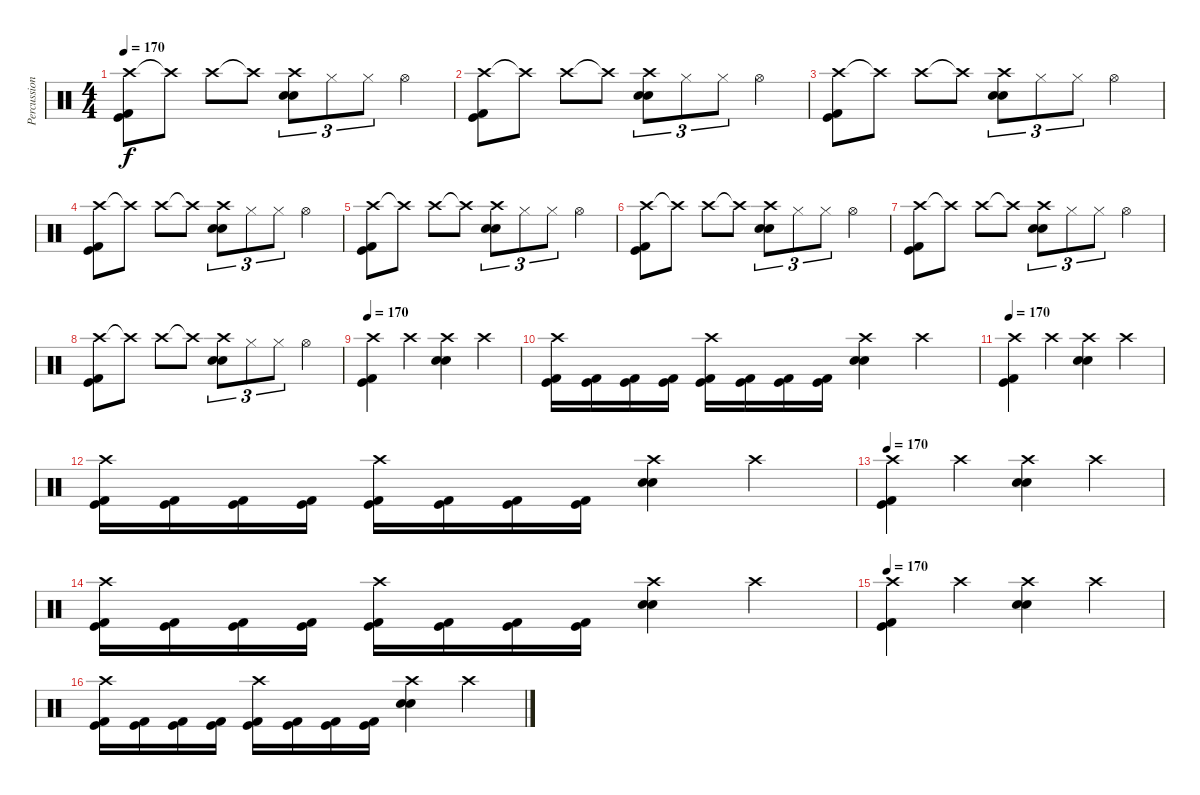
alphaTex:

\track ("Percussion" "Percussion") {instrument percussion}
\staff {score}
\articulation defaults
\ts (4 4)
\tempo 170
\clef neutral
\ks c
("Crash high (hit)" "Kick (hit) 2" "Kick (hit)").8{dy f} "Crash high (hit)"{t}.8 "Crash high (hit)".8 "Crash high (hit)"{t}.8 ("Crash high (hit)" "Electric Snare (hit)" "Electric Snare (hit)").8{tu (3 2)} "Hi-Hat (closed)".8{tu (3 2)} "Hi-Hat (closed)".8{tu (3 2)} "Hi-Hat (open)".4 |
("Crash high (hit)" "Kick (hit) 2" "Kick (hit)").8 "Crash high (hit)"{t}.8 "Crash high (hit)".8 "Crash high (hit)"{t}.8 ("Crash high (hit)" "Electric Snare (hit)" "Electric Snare (hit)").8{tu (3 2)} "Hi-Hat (closed)".8{tu (3 2)} "Hi-Hat (closed)".8{tu (3 2)} "Hi-Hat (open)".4 |
("Crash high (hit)" "Kick (hit) 2" "Kick (hit)").8 "Crash high (hit)"{t}.8 "Crash high (hit)".8 "Crash high (hit)"{t}.8 ("Crash high (hit)" "Electric Snare (hit)" "Electric Snare (hit)").8{tu (3 2)} "Hi-Hat (closed)".8{tu (3 2)} "Hi-Hat (closed)".8{tu (3 2)} "Hi-Hat (open)".4 |
("Crash high (hit)" "Kick (hit) 2" "Kick (hit)").8 "Crash high (hit)"{t}.8 "Crash high (hit)".8 "Crash high (hit)"{t}.8 ("Crash high (hit)" "Electric Snare (hit)" "Electric Snare (hit)").8{tu (3 2)} "Hi-Hat (closed)".8{tu (3 2)} "Hi-Hat (closed)".8{tu (3 2)} "Hi-Hat (open)".4 |
("Crash high (hit)" "Kick (hit) 2" "Kick (hit)").8 "Crash high (hit)"{t}.8 "Crash high (hit)".8 "Crash high (hit)"{t}.8 ("Crash high (hit)" "Electric Snare (hit)" "Electric Snare (hit)").8{tu (3 2)} "Hi-Hat (closed)".8{tu (3 2)} "Hi-Hat (closed)".8{tu (3 2)} "Hi-Hat (open)".4 |
("Crash high (hit)" "Kick (hit) 2" "Kick (hit)").8 "Crash high (hit)"{t}.8 "Crash high (hit)".8 "Crash high (hit)"{t}.8 ("Crash high (hit)" "Electric Snare (hit)" "Electric Snare (hit)").8{tu (3 2)} "Hi-Hat (closed)".8{tu (3 2)} "Hi-Hat (closed)".8{tu (3 2)} "Hi-Hat (open)".4 |
("Crash high (hit)" "Kick (hit) 2" "Kick (hit)").8 "Crash high (hit)"{t}.8 "Crash high (hit)".8 "Crash high (hit)"{t}.8 ("Crash high (hit)" "Electric Snare (hit)" "Electric Snare (hit)").8{tu (3 2)} "Hi-Hat (closed)".8{tu (3 2)} "Hi-Hat (closed)".8{tu (3 2)} "Hi-Hat (open)".4 |
("Crash high (hit)" "Kick (hit) 2" "Kick (hit)").8 "Crash high (hit)"{t}.8 "Crash high (hit)".8 "Crash high (hit)"{t}.8 ("Crash high (hit)" "Electric Snare (hit)" "Electric Snare (hit)").8{tu (3 2)} "Hi-Hat (closed)".8{tu (3 2)} "Hi-Hat (closed)".8{tu (3 2)} "Hi-Hat (open)".4 |
\tempo 170
("Crash high (hit)" "Kick (hit) 2" "Kick (hit)").4 "Crash high (hit)".4 ("Crash high (hit)" "Electric Snare (hit)" "Electric Snare (hit)").4 "Crash high (hit)".4 |
("Crash high (hit)" "Kick (hit) 2" "Kick (hit)").16 ("Kick (hit) 2" "Kick (hit)").16 ("Kick (hit) 2" "Kick (hit)").16 ("Kick (hit) 2" "Kick (hit)").16 ("Crash high (hit)" "Kick (hit) 2" "Kick (hit)").16 ("Kick (hit) 2" "Kick (hit)").16 ("Kick (hit) 2" "Kick (hit)").16 ("Kick (hit) 2" "Kick (hit)").16 ("Crash high (hit)" "Electric Snare (hit)" "Electric Snare (hit)").4 "Crash high (hit)".4 |
\tempo 170
("Crash high (hit)" "Kick (hit) 2" "Kick (hit)").4 "Crash high (hit)".4 ("Crash high (hit)" "Electric Snare (hit)" "Electric Snare (hit)").4 "Crash high (hit)".4 |
("Crash high (hit)" "Kick (hit) 2" "Kick (hit)").16 ("Kick (hit) 2" "Kick (hit)").16 ("Kick (hit) 2" "Kick (hit)").16 ("Kick (hit) 2" "Kick (hit)").16 ("Crash high (hit)" "Kick (hit) 2" "Kick (hit)").16 ("Kick (hit) 2" "Kick (hit)").16 ("Kick (hit) 2" "Kick (hit)").16 ("Kick (hit) 2" "Kick (hit)").16 ("Crash high (hit)" "Electric Snare (hit)" "Electric Snare (hit)").4 "Crash high (hit)".4 |
\tempo 170
("Crash high (hit)" "Kick (hit) 2" "Kick (hit)").4 "Crash high (hit)".4 ("Crash high (hit)" "Electric Snare (hit)" "Electric Snare (hit)").4 "Crash high (hit)".4 |
("Crash high (hit)" "Kick (hit) 2" "Kick (hit)").16 ("Kick (hit) 2" "Kick (hit)").16 ("Kick (hit) 2" "Kick (hit)").16 ("Kick (hit) 2" "Kick (hit)").16 ("Crash high (hit)" "Kick (hit) 2" "Kick (hit)").16 ("Kick (hit) 2" "Kick (hit)").16 ("Kick (hit) 2" "Kick (hit)").16 ("Kick (hit) 2" "Kick (hit)").16 ("Crash high (hit)" "Electric Snare (hit)" "Electric Snare (hit)").4 "Crash high (hit)".4 |
\tempo 170
("Crash high (hit)" "Kick (hit) 2" "Kick (hit)").4 "Crash high (hit)".4 ("Crash high (hit)" "Electric Snare (hit)" "Electric Snare (hit)").4 "Crash high (hit)".4 |
("Crash high (hit)" "Kick (hit) 2" "Kick (hit)").16 ("Kick (hit) 2" "Kick (hit)").16 ("Kick (hit) 2" "Kick (hit)").16 ("Kick (hit) 2" "Kick (hit)").16 ("Crash high (hit)" "Kick (hit) 2" "Kick (hit)").16 ("Kick (hit) 2" "Kick (hit)").16 ("Kick (hit) 2" "Kick (hit)").16 ("Kick (hit) 2" "Kick (hit)").16 ("Crash high (hit)" "Electric Snare (hit)" "Electric Snare (hit)").4 "Crash high (hit)".4
